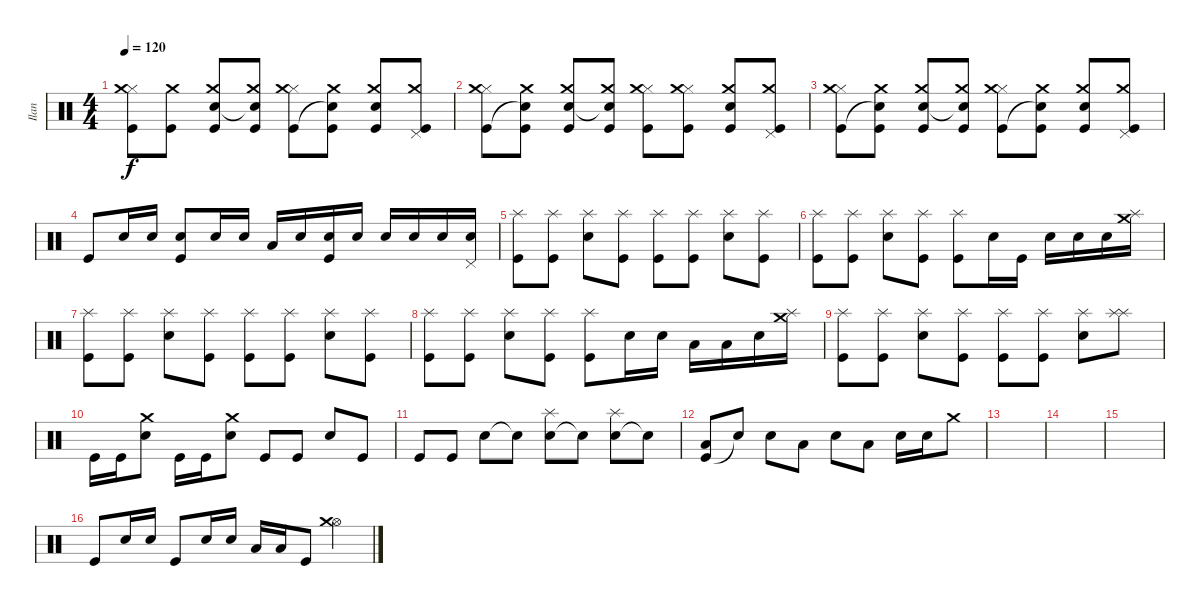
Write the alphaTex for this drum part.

\track ("Ilan" "Ilan") {instrument percussion}
\staff {score}
\articulation defaults
\ts (4 4)
\tempo 120
\clef neutral
\ks c
("Kick (hit)" "Hi-Hat (closed)" "Crash medium (hit)").8{dy f} ("Kick (hit)" "Crash medium (hit)").8 ("Electric Snare (hit)" "Kick (hit)" "Crash medium (hit)").8 ("Snare (hit)"{t} "Kick (hit)" "Crash medium (hit)").8 ("Kick (hit)" "Hi-Hat (closed)" "Crash medium (hit)").8 ("Snare (hit)"{t} "Kick (hit)" "Crash medium (hit)").8 ("Electric Snare (hit)" "Kick (hit)" "Crash medium (hit)").8 ("Pedal Hi-Hat (hit)" "Kick (hit)" "Crash medium (hit)").8 |
("Kick (hit)" "Hi-Hat (closed)" "Crash medium (hit)").8 ("Snare (hit)"{t} "Kick (hit)" "Crash medium (hit)").8 ("Electric Snare (hit)" "Kick (hit)" "Crash medium (hit)").8 ("Snare (hit)"{t} "Kick (hit)" "Crash medium (hit)").8 ("Kick (hit)" "Hi-Hat (closed)" "Crash medium (hit)").8 ("Kick (hit)" "Hi-Hat (closed)" "Crash medium (hit)").8 ("Electric Snare (hit)" "Kick (hit)" "Crash medium (hit)").8 ("Pedal Hi-Hat (hit)" "Kick (hit)" "Crash medium (hit)").8 |
("Kick (hit)" "Hi-Hat (closed)" "Crash medium (hit)").8 ("Snare (hit)"{t} "Kick (hit)" "Crash medium (hit)").8 ("Electric Snare (hit)" "Kick (hit)" "Crash medium (hit)").8 ("Snare (hit)"{t} "Kick (hit)" "Crash medium (hit)").8 ("Kick (hit)" "Hi-Hat (closed)" "Crash medium (hit)").8 ("Snare (hit)"{t} "Kick (hit)" "Crash medium (hit)").8 ("Electric Snare (hit)" "Kick (hit)" "Crash medium (hit)").8 ("Pedal Hi-Hat (hit)" "Kick (hit)" "Crash medium (hit)").8 |
"Kick (hit)".8 "Electric Snare (hit)".16 "Electric Snare (hit)".16 ("Electric Snare (hit)" "Kick (hit)").8 "Electric Snare (hit)".16 "Electric Snare (hit)".16 "Low Tom (hit)".16 "Electric Snare (hit)".16 ("Electric Snare (hit)" "Kick (hit)").16 "Electric Snare (hit)".16 "Electric Snare (hit)".16 "Electric Snare (hit)".16 "Electric Snare (hit)".16 ("Electric Snare (hit)" "Pedal Hi-Hat (hit)").16 |
("Kick (hit)" "Splash (hit)").8 ("Kick (hit)" "Splash (hit)").8 ("Electric Snare (hit)" "Splash (hit)").8 ("Kick (hit)" "Splash (hit)").8 ("Kick (hit)" "Splash (hit)").8 ("Kick (hit)" "Splash (hit)").8 ("Electric Snare (hit)" "Splash (hit)").8 ("Kick (hit)" "Splash (hit)").8 |
("Kick (hit)" "Splash (hit)").8 ("Kick (hit)" "Splash (hit)").8 ("Electric Snare (hit)" "Splash (hit)").8 ("Kick (hit)" "Splash (hit)").8 ("Kick (hit)" "Splash (hit)").8 "Electric Snare (hit)".16 "Kick (hit)".16 "Electric Snare (hit)".16 "Electric Snare (hit)".16 "Electric Snare (hit)".16 ("Crash medium (hit)" "Splash (hit)").16 |
("Kick (hit)" "Splash (hit)").8 ("Kick (hit)" "Splash (hit)").8 ("Electric Snare (hit)" "Splash (hit)").8 ("Kick (hit)" "Splash (hit)").8 ("Kick (hit)" "Splash (hit)").8 ("Kick (hit)" "Splash (hit)").8 ("Electric Snare (hit)" "Splash (hit)").8 ("Kick (hit)" "Splash (hit)").8 |
("Kick (hit)" "Splash (hit)").8 ("Kick (hit)" "Splash (hit)").8 ("Electric Snare (hit)" "Splash (hit)").8 ("Kick (hit)" "Splash (hit)").8 ("Kick (hit)" "Splash (hit)").8 "Electric Snare (hit)".16 "Electric Snare (hit)".16 "Low Floor Tom (hit)".16 "Low Floor Tom (hit)".16 "Electric Snare (hit)".16 ("Crash medium (hit)" "Splash (hit)").16 |
("Kick (hit)" "Splash (hit)").8 ("Kick (hit)" "Splash (hit)").8 ("Electric Snare (hit)" "Splash (hit)").8 ("Kick (hit)" "Splash (hit)").8 ("Kick (hit)" "Splash (hit)").8 ("Kick (hit)" "Splash (hit)").8 ("Electric Snare (hit)" "Splash (hit)").8 ("Splash (hit)" "Splash (hit)").8 |
"Kick (hit)".16 "Kick (hit)".16 ("Electric Snare (hit)" "Crash medium (hit)").8 "Kick (hit)".16 "Kick (hit)".16 ("Electric Snare (hit)" "Crash medium (hit)").8 "Kick (hit)".8 "Kick (hit)".8 "Electric Snare (hit)".8 "Kick (hit)".8 |
"Kick (hit)".8 "Kick (hit)".8 "Electric Snare (hit)".8 "Snare (hit)"{t}.8 ("Electric Snare (hit)" "Splash (hit)").8 "Snare (hit)"{t}.8 ("Electric Snare (hit)" "Splash (hit)").8 "Snare (hit)"{t}.8 |
("Kick (hit)" "Low Floor Tom (hit)").8 "Snare (hit)"{t}.8 "Electric Snare (hit)".8 "Low Floor Tom (hit)".8 "Electric Snare (hit)".8 "Low Floor Tom (hit)".8 "Electric Snare (hit)".16 "Electric Snare (hit)".16 "Crash medium (hit)".8 |
|
|
|
"Kick (hit)".8 "Electric Snare (hit)".16 "Electric Snare (hit)".16 "Kick (hit)".8 "Electric Snare (hit)".16 "Electric Snare (hit)".16 "Low Tom (hit)".16 "Low Floor Tom (hit)".16 "Kick (hit)".8 ("Hi-Hat (open)" "Crash medium (hit)").4
